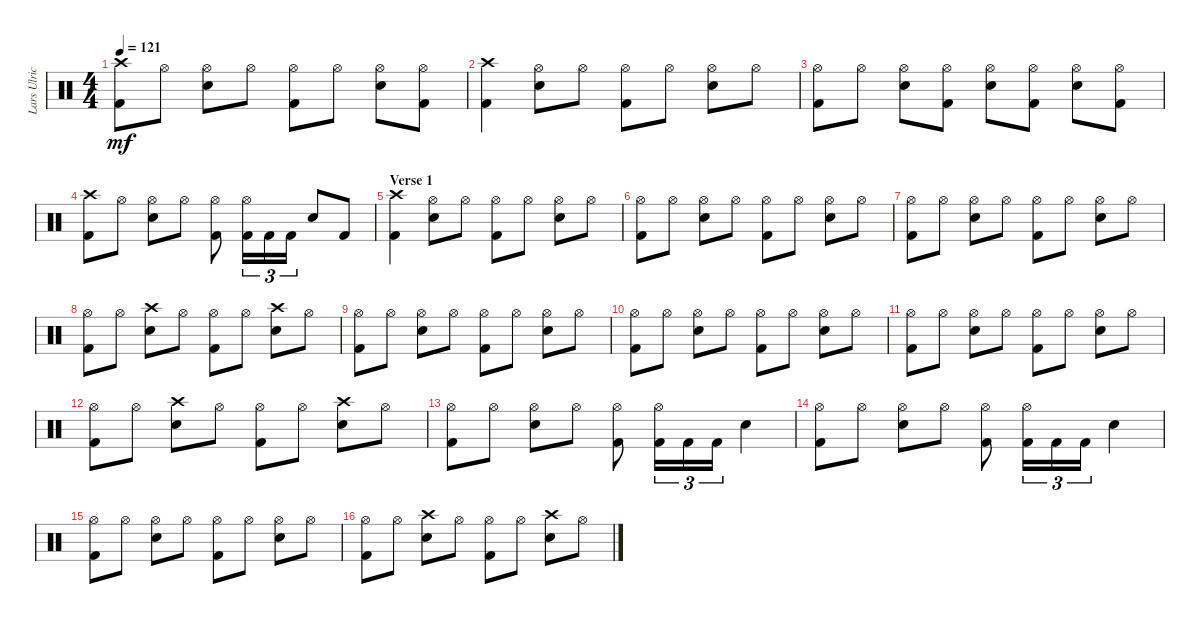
\track ("Lars Ulrich" "Lars Ulric") {instrument percussion}
\staff {score}
\articulation defaults
\ts (4 4)
\tempo 121
\clef neutral
\ks c
("Kick (hit) 2" "Crash high (hit)").8{dy mf} "Hi-Hat (open)".8 ("Hi-Hat (open)" "Snare (hit) 2").8 "Hi-Hat (open)".8 ("Hi-Hat (open)" "Kick (hit) 2").8 "Hi-Hat (open)".8 ("Hi-Hat (open)" "Snare (hit) 2").8 ("Hi-Hat (open)" "Kick (hit) 2").8 |
("Crash high (hit)" "Kick (hit) 2").4 ("Hi-Hat (open)" "Snare (hit) 2").8 "Hi-Hat (open)".8 ("Hi-Hat (open)" "Kick (hit) 2").8 "Hi-Hat (open)".8 ("Hi-Hat (open)" "Snare (hit) 2").8 "Hi-Hat (open)".8 |
("Hi-Hat (open)" "Kick (hit) 2").8 "Hi-Hat (open)".8 ("Hi-Hat (open)" "Snare (hit) 2").8 ("Hi-Hat (open)" "Kick (hit) 2").8 ("Hi-Hat (open)" "Snare (hit) 2").8 ("Hi-Hat (open)" "Kick (hit) 2").8 ("Hi-Hat (open)" "Snare (hit) 2").8 ("Hi-Hat (open)" "Kick (hit) 2").8 |
("Kick (hit) 2" "Crash high (hit)").8 "Hi-Hat (open)".8 ("Hi-Hat (open)" "Snare (hit) 2").8 "Hi-Hat (open)".8 ("Hi-Hat (open)" "Kick (hit) 2").8 ("Hi-Hat (open)" "Kick (hit) 2").16{tu (3 2)} "Kick (hit) 2".16{tu (3 2)} "Kick (hit) 2".16{tu (3 2)} "Snare (hit) 2".8 "Kick (hit) 2".8 |
\section ("" "Verse 1")
("Crash high (hit)" "Kick (hit) 2").4 ("Hi-Hat (open)" "Snare (hit) 2").8 "Hi-Hat (open)".8 ("Hi-Hat (open)" "Kick (hit) 2").8 "Hi-Hat (open)".8 ("Hi-Hat (open)" "Snare (hit) 2").8 "Hi-Hat (open)".8 |
("Hi-Hat (open)" "Kick (hit) 2").8 "Hi-Hat (open)".8 ("Hi-Hat (open)" "Snare (hit) 2").8 "Hi-Hat (open)".8 ("Hi-Hat (open)" "Kick (hit) 2").8 "Hi-Hat (open)".8 ("Hi-Hat (open)" "Snare (hit) 2").8 "Hi-Hat (open)".8 |
("Hi-Hat (open)" "Kick (hit) 2").8 "Hi-Hat (open)".8 ("Hi-Hat (open)" "Snare (hit) 2").8 "Hi-Hat (open)".8 ("Hi-Hat (open)" "Kick (hit) 2").8 "Hi-Hat (open)".8 ("Hi-Hat (open)" "Snare (hit) 2").8 "Hi-Hat (open)".8 |
("Hi-Hat (open)" "Kick (hit) 2").8 "Hi-Hat (open)".8 ("Snare (hit) 2" "Crash high (hit)").8 "Hi-Hat (open)".8 ("Hi-Hat (open)" "Kick (hit) 2").8 "Hi-Hat (open)".8 ("Snare (hit) 2" "Crash high (hit)").8 "Hi-Hat (open)".8 |
("Hi-Hat (open)" "Kick (hit) 2").8 "Hi-Hat (open)".8 ("Hi-Hat (open)" "Snare (hit) 2").8 "Hi-Hat (open)".8 ("Hi-Hat (open)" "Kick (hit) 2").8 "Hi-Hat (open)".8 ("Hi-Hat (open)" "Snare (hit) 2").8 "Hi-Hat (open)".8 |
("Hi-Hat (open)" "Kick (hit) 2").8 "Hi-Hat (open)".8 ("Hi-Hat (open)" "Snare (hit) 2").8 "Hi-Hat (open)".8 ("Hi-Hat (open)" "Kick (hit) 2").8 "Hi-Hat (open)".8 ("Hi-Hat (open)" "Snare (hit) 2").8 "Hi-Hat (open)".8 |
("Hi-Hat (open)" "Kick (hit) 2").8 "Hi-Hat (open)".8 ("Hi-Hat (open)" "Snare (hit) 2").8 "Hi-Hat (open)".8 ("Hi-Hat (open)" "Kick (hit) 2").8 "Hi-Hat (open)".8 ("Hi-Hat (open)" "Snare (hit) 2").8 "Hi-Hat (open)".8 |
("Hi-Hat (open)" "Kick (hit) 2").8 "Hi-Hat (open)".8 ("Snare (hit) 2" "Crash high (hit)").8 "Hi-Hat (open)".8 ("Hi-Hat (open)" "Kick (hit) 2").8 "Hi-Hat (open)".8 ("Snare (hit) 2" "Crash high (hit)").8 "Hi-Hat (open)".8 |
("Hi-Hat (open)" "Kick (hit) 2").8 "Hi-Hat (open)".8 ("Hi-Hat (open)" "Snare (hit) 2").8 "Hi-Hat (open)".8 ("Hi-Hat (open)" "Kick (hit) 2").8 ("Hi-Hat (open)" "Kick (hit) 2").16{tu (3 2)} "Kick (hit) 2".16{tu (3 2)} "Kick (hit) 2".16{tu (3 2)} "Snare (hit) 2".4 |
("Hi-Hat (open)" "Kick (hit) 2").8 "Hi-Hat (open)".8 ("Hi-Hat (open)" "Snare (hit) 2").8 "Hi-Hat (open)".8 ("Hi-Hat (open)" "Kick (hit) 2").8 ("Hi-Hat (open)" "Kick (hit) 2").16{tu (3 2)} "Kick (hit) 2".16{tu (3 2)} "Kick (hit) 2".16{tu (3 2)} "Snare (hit) 2".4 |
("Hi-Hat (open)" "Kick (hit) 2").8 "Hi-Hat (open)".8 ("Hi-Hat (open)" "Snare (hit) 2").8 "Hi-Hat (open)".8 ("Hi-Hat (open)" "Kick (hit) 2").8 "Hi-Hat (open)".8 ("Hi-Hat (open)" "Snare (hit) 2").8 "Hi-Hat (open)".8 |
("Hi-Hat (open)" "Kick (hit) 2").8 "Hi-Hat (open)".8 ("Snare (hit) 2" "Crash high (hit)").8 "Hi-Hat (open)".8 ("Hi-Hat (open)" "Kick (hit) 2").8 "Hi-Hat (open)".8 ("Snare (hit) 2" "Crash high (hit)").8 "Hi-Hat (open)".8
